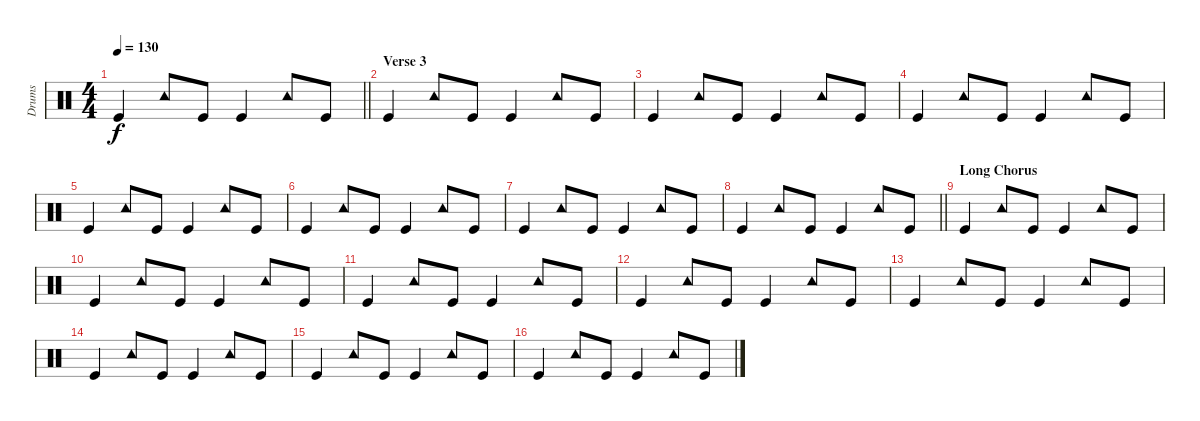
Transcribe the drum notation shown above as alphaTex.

\track ("Drums" "Drums") {instrument percussion}
\staff {score}
\articulation defaults
\ts (4 4)
\tempo 130
\clef neutral
\barLineRight lightlight
\ks c "Kick (hit)".4{dy f} "Tambourine (hit)".8 "Kick (hit)".8 "Kick (hit)".4 "Tambourine (hit)".8 "Kick (hit)".8
|
\section ("" "Verse 3")
"Kick (hit)".4 "Tambourine (hit)".8 "Kick (hit)".8 "Kick (hit)".4 "Tambourine (hit)".8 "Kick (hit)".8 |
"Kick (hit)".4 "Tambourine (hit)".8 "Kick (hit)".8 "Kick (hit)".4 "Tambourine (hit)".8 "Kick (hit)".8 |
"Kick (hit)".4 "Tambourine (hit)".8 "Kick (hit)".8 "Kick (hit)".4 "Tambourine (hit)".8 "Kick (hit)".8 |
"Kick (hit)".4 "Tambourine (hit)".8 "Kick (hit)".8 "Kick (hit)".4 "Tambourine (hit)".8 "Kick (hit)".8 |
"Kick (hit)".4 "Tambourine (hit)".8 "Kick (hit)".8 "Kick (hit)".4 "Tambourine (hit)".8 "Kick (hit)".8 |
"Kick (hit)".4 "Tambourine (hit)".8 "Kick (hit)".8 "Kick (hit)".4 "Tambourine (hit)".8 "Kick (hit)".8 |
\barLineRight lightlight "Kick (hit)".4 "Tambourine (hit)".8 "Kick (hit)".8 "Kick (hit)".4 "Tambourine (hit)".8 "Kick (hit)".8
|
\section ("" "Long Chorus")
"Kick (hit)".4 "Tambourine (hit)".8 "Kick (hit)".8 "Kick (hit)".4 "Tambourine (hit)".8 "Kick (hit)".8 |
"Kick (hit)".4 "Tambourine (hit)".8 "Kick (hit)".8 "Kick (hit)".4 "Tambourine (hit)".8 "Kick (hit)".8 |
"Kick (hit)".4 "Tambourine (hit)".8 "Kick (hit)".8 "Kick (hit)".4 "Tambourine (hit)".8 "Kick (hit)".8 |
"Kick (hit)".4 "Tambourine (hit)".8 "Kick (hit)".8 "Kick (hit)".4 "Tambourine (hit)".8 "Kick (hit)".8 |
"Kick (hit)".4 "Tambourine (hit)".8 "Kick (hit)".8 "Kick (hit)".4 "Tambourine (hit)".8 "Kick (hit)".8 |
"Kick (hit)".4 "Tambourine (hit)".8 "Kick (hit)".8 "Kick (hit)".4 "Tambourine (hit)".8 "Kick (hit)".8 |
"Kick (hit)".4 "Tambourine (hit)".8 "Kick (hit)".8 "Kick (hit)".4 "Tambourine (hit)".8 "Kick (hit)".8 |
"Kick (hit)".4 "Tambourine (hit)".8 "Kick (hit)".8 "Kick (hit)".4 "Tambourine (hit)".8 "Kick (hit)".8
